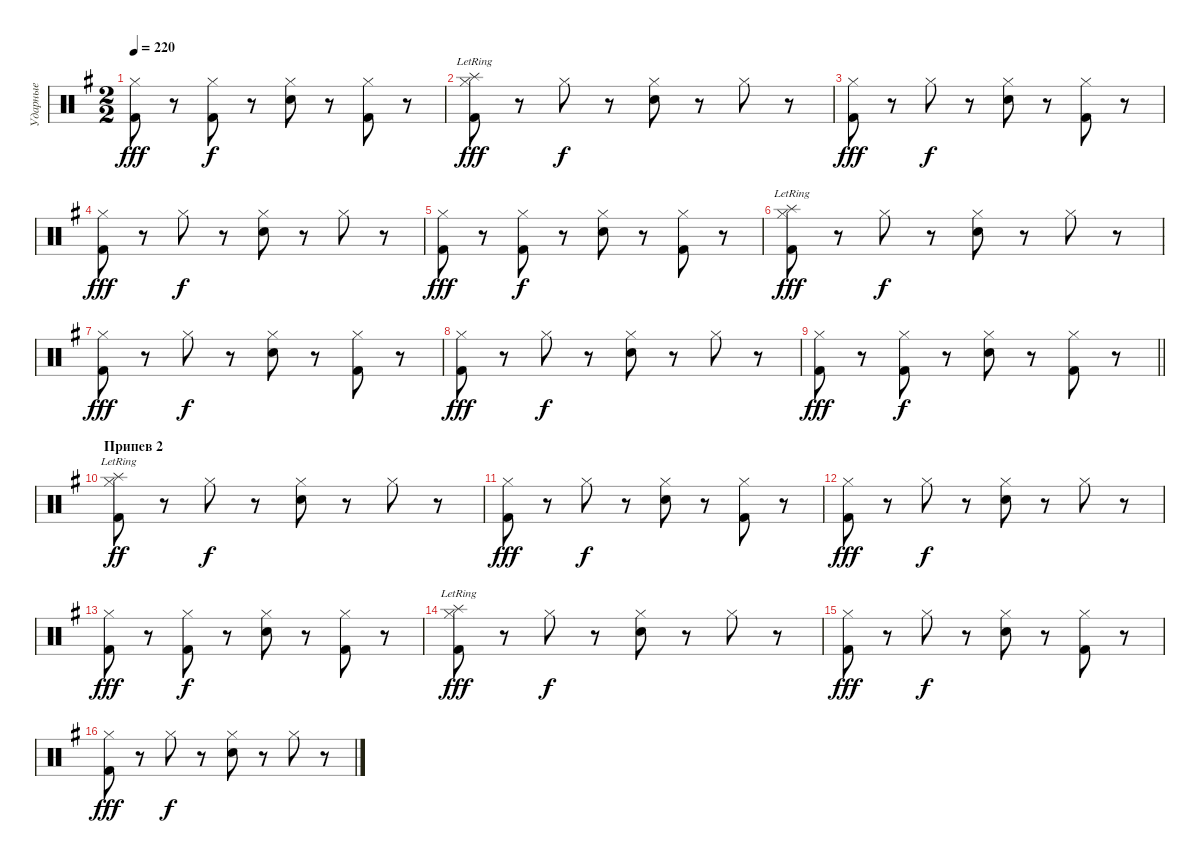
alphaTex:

\track ("Ударные" "Ударные") {instrument percussion}
\staff {score}
\articulation defaults
\ts (2 2)
\tempo 220
\clef neutral
\ks eminor
("Hi-Hat (closed)" "Kick (hit) 2").8{dy fff} r.8 ("Hi-Hat (closed)" "Kick (hit) 2").8{dy f} r.8 ("Hi-Hat (closed)" "Snare (hit) 2").8 r.8 ("Hi-Hat (closed)" "Kick (hit) 2").8 r.8 |
("Hi-Hat (closed)" "Splash (hit)"{lr} "Kick (hit) 2").8{dy fff} r.8 "Hi-Hat (closed)".8{dy f} r.8 ("Hi-Hat (closed)" "Snare (hit) 2").8 r.8 "Hi-Hat (closed)".8 r.8 |
("Hi-Hat (closed)" "Kick (hit) 2").8{dy fff} r.8 "Hi-Hat (closed)".8{dy f} r.8 ("Hi-Hat (closed)" "Snare (hit) 2").8 r.8 ("Hi-Hat (closed)" "Kick (hit) 2").8 r.8 |
("Hi-Hat (closed)" "Kick (hit) 2").8{dy fff} r.8 "Hi-Hat (closed)".8{dy f} r.8 ("Hi-Hat (closed)" "Snare (hit) 2").8 r.8 "Hi-Hat (closed)".8 r.8 |
("Hi-Hat (closed)" "Kick (hit) 2").8{dy fff} r.8 ("Hi-Hat (closed)" "Kick (hit) 2").8{dy f} r.8 ("Hi-Hat (closed)" "Snare (hit) 2").8 r.8 ("Hi-Hat (closed)" "Kick (hit) 2").8 r.8 |
("Hi-Hat (closed)" "Splash (hit)"{lr} "Kick (hit) 2").8{dy fff} r.8 "Hi-Hat (closed)".8{dy f} r.8 ("Hi-Hat (closed)" "Snare (hit) 2").8 r.8 "Hi-Hat (closed)".8 r.8 |
("Hi-Hat (closed)" "Kick (hit) 2").8{dy fff} r.8 "Hi-Hat (closed)".8{dy f} r.8 ("Hi-Hat (closed)" "Snare (hit) 2").8 r.8 ("Hi-Hat (closed)" "Kick (hit) 2").8 r.8 |
("Hi-Hat (closed)" "Kick (hit) 2").8{dy fff} r.8 "Hi-Hat (closed)".8{dy f} r.8 ("Hi-Hat (closed)" "Snare (hit) 2").8 r.8 "Hi-Hat (closed)".8 r.8 |
\barLineRight lightlight
("Hi-Hat (closed)" "Kick (hit) 2").8{dy fff} r.8 ("Hi-Hat (closed)" "Kick (hit) 2").8{dy f} r.8 ("Hi-Hat (closed)" "Snare (hit) 2").8 r.8 ("Hi-Hat (closed)" "Kick (hit) 2").8 r.8 |
\section ("" "Припев 2")
("Hi-Hat (closed)" "Splash (hit)"{lr} "Kick (hit) 2").8{dy ff} r.8 "Hi-Hat (closed)".8{dy f} r.8 ("Hi-Hat (closed)" "Snare (hit) 2").8 r.8 "Hi-Hat (closed)".8 r.8 |
("Hi-Hat (closed)" "Kick (hit) 2").8{dy fff} r.8 "Hi-Hat (closed)".8{dy f} r.8 ("Hi-Hat (closed)" "Snare (hit) 2").8 r.8 ("Hi-Hat (closed)" "Kick (hit) 2").8 r.8 |
("Hi-Hat (closed)" "Kick (hit) 2").8{dy fff} r.8 "Hi-Hat (closed)".8{dy f} r.8 ("Hi-Hat (closed)" "Snare (hit) 2").8 r.8 "Hi-Hat (closed)".8 r.8 |
("Hi-Hat (closed)" "Kick (hit) 2").8{dy fff} r.8 ("Hi-Hat (closed)" "Kick (hit) 2").8{dy f} r.8 ("Hi-Hat (closed)" "Snare (hit) 2").8 r.8 ("Hi-Hat (closed)" "Kick (hit) 2").8 r.8 |
("Hi-Hat (closed)" "Splash (hit)"{lr} "Kick (hit) 2").8{dy fff} r.8 "Hi-Hat (closed)".8{dy f} r.8 ("Hi-Hat (closed)" "Snare (hit) 2").8 r.8 "Hi-Hat (closed)".8 r.8 |
("Hi-Hat (closed)" "Kick (hit) 2").8{dy fff} r.8 "Hi-Hat (closed)".8{dy f} r.8 ("Hi-Hat (closed)" "Snare (hit) 2").8 r.8 ("Hi-Hat (closed)" "Kick (hit) 2").8 r.8 |
("Hi-Hat (closed)" "Kick (hit) 2").8{dy fff} r.8 "Hi-Hat (closed)".8{dy f} r.8 ("Hi-Hat (closed)" "Snare (hit) 2").8 r.8 "Hi-Hat (closed)".8 r.8
